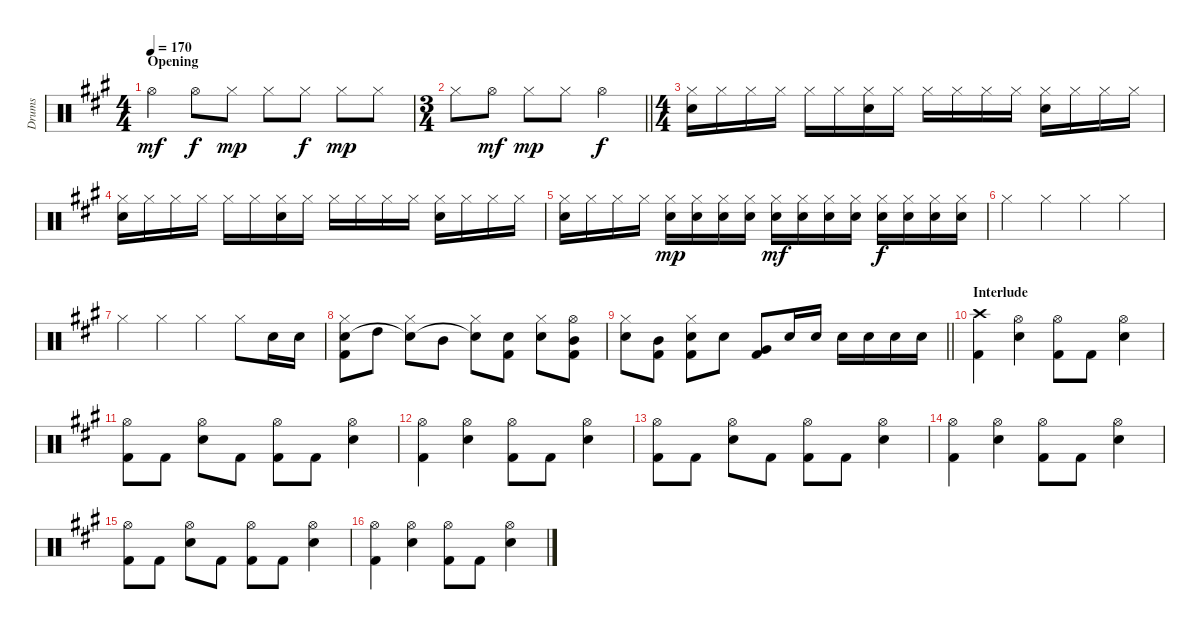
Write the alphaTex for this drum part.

\track ("Drums" "Drums") {instrument percussion}
\staff {score}
\articulation defaults
\ts (4 4)
\section ("" "Opening")
\tempo 170
\clef neutral
\ks f#minor "Hi-Hat (open)".4{dy mf} "Hi-Hat (open)".8{dy f} "Hi-Hat (closed)".8{dy mp} "Hi-Hat (closed)".8 "Hi-Hat (closed)".8{dy f} "Hi-Hat (closed)".8{dy mp} "Hi-Hat (closed)".8
|
\ts (3 4)
\barLineRight lightlight "Hi-Hat (closed)".8 "Hi-Hat (open)".8{dy mf} "Hi-Hat (closed)".8{dy mp} "Hi-Hat (closed)".8 "Hi-Hat (open)".4{dy f}
|
\ts (4 4)
("Hi-Hat (closed)" "Snare (hit) 2").16 "Hi-Hat (closed)".16 "Hi-Hat (closed)".16 "Hi-Hat (closed)".16 "Hi-Hat (closed)".16 "Hi-Hat (closed)".16 ("Hi-Hat (closed)" "Snare (hit) 2").16 "Hi-Hat (closed)".16 "Hi-Hat (closed)".16 "Hi-Hat (closed)".16 "Hi-Hat (closed)".16 "Hi-Hat (closed)".16 ("Hi-Hat (closed)" "Snare (hit) 2").16 "Hi-Hat (closed)".16 "Hi-Hat (closed)".16 "Hi-Hat (closed)".16 |
("Hi-Hat (closed)" "Snare (hit) 2").16 "Hi-Hat (closed)".16 "Hi-Hat (closed)".16 "Hi-Hat (closed)".16 "Hi-Hat (closed)".16 "Hi-Hat (closed)".16 ("Hi-Hat (closed)" "Snare (hit) 2").16 "Hi-Hat (closed)".16 "Hi-Hat (closed)".16 "Hi-Hat (closed)".16 "Hi-Hat (closed)".16 "Hi-Hat (closed)".16 ("Hi-Hat (closed)" "Snare (hit) 2").16 "Hi-Hat (closed)".16 "Hi-Hat (closed)".16 "Hi-Hat (closed)".16 |
("Hi-Hat (closed)" "Snare (hit) 2").16 "Hi-Hat (closed)".16 "Hi-Hat (closed)".16 "Hi-Hat (closed)".16 ("Hi-Hat (closed)" "Snare (hit) 2").16{dy mp} ("Hi-Hat (closed)" "Snare (hit) 2").16 ("Hi-Hat (closed)" "Snare (hit) 2").16 ("Hi-Hat (closed)" "Snare (hit) 2").16 ("Hi-Hat (closed)" "Snare (hit) 2").16{dy mf} ("Hi-Hat (closed)" "Snare (hit) 2").16 ("Hi-Hat (closed)" "Snare (hit) 2").16 ("Hi-Hat (closed)" "Snare (hit) 2").16 ("Hi-Hat (closed)" "Snare (hit) 2").16{dy f} ("Hi-Hat (closed)" "Snare (hit) 2").16 ("Hi-Hat (closed)" "Snare (hit) 2").16 ("Hi-Hat (closed)" "Snare (hit) 2").16 |
"Hi-Hat (closed)".4 "Hi-Hat (closed)".4 "Hi-Hat (closed)".4 "Hi-Hat (closed)".4 |
"Hi-Hat (closed)".4 "Hi-Hat (closed)".4 "Hi-Hat (closed)".4 "Hi-Hat (closed)".8 "Snare (hit) 2".16 "Snare (hit) 2".16 |
("Hi-Hat (closed)" "Snare (hit) 2" "Kick (hit) 2").8 "High Tom (hit)".8 ("Hi-Hat (closed)" "Snare (hit)"{t}).8 "Mid Tom (hit)".8 ("Hi-Hat (closed)" "Snare (hit)"{t}).8 ("Snare (hit) 2" "Kick (hit) 2").8 ("Hi-Hat (closed)" "Snare (hit) 2").8 ("Hi-Hat (open)" "Mid Tom (hit)" "Kick (hit) 2").8 |
\barLineRight lightlight
("Hi-Hat (closed)" "Snare (hit) 2").8 ("Mid Tom (hit)" "Kick (hit) 2").8 ("Hi-Hat (closed)" "Snare (hit) 2" "Kick (hit) 2").8 "Snare (hit) 2".8 ("Very Low Tom (hit)" "Kick (hit) 2").8 "Snare (hit) 2".16 "Snare (hit) 2".16 "Snare (hit) 2".16 "Snare (hit) 2".16 "Snare (hit) 2".16 "Snare (hit) 2".16 |
\section ("" "Interlude")
("Crash high (hit)" "Kick (hit) 2").4 ("Hi-Hat (open)" "Snare (hit) 2").4 ("Hi-Hat (open)" "Kick (hit) 2").8 "Kick (hit) 2".8 ("Hi-Hat (open)" "Snare (hit) 2").4 |
("Hi-Hat (open)" "Kick (hit) 2").8 "Kick (hit) 2".8 ("Hi-Hat (open)" "Snare (hit) 2").8 "Kick (hit) 2".8 ("Hi-Hat (open)" "Kick (hit) 2").8 "Kick (hit) 2".8 ("Hi-Hat (open)" "Snare (hit) 2").4 |
("Hi-Hat (open)" "Kick (hit) 2").4 ("Hi-Hat (open)" "Snare (hit) 2").4 ("Hi-Hat (open)" "Kick (hit) 2").8 "Kick (hit) 2".8 ("Hi-Hat (open)" "Snare (hit) 2").4 |
("Hi-Hat (open)" "Kick (hit) 2").8 "Kick (hit) 2".8 ("Hi-Hat (open)" "Snare (hit) 2").8 "Kick (hit) 2".8 ("Hi-Hat (open)" "Kick (hit) 2").8 "Kick (hit) 2".8 ("Hi-Hat (open)" "Snare (hit) 2").4 |
("Hi-Hat (open)" "Kick (hit) 2").4 ("Hi-Hat (open)" "Snare (hit) 2").4 ("Hi-Hat (open)" "Kick (hit) 2").8 "Kick (hit) 2".8 ("Hi-Hat (open)" "Snare (hit) 2").4 |
("Hi-Hat (open)" "Kick (hit) 2").8 "Kick (hit) 2".8 ("Hi-Hat (open)" "Snare (hit) 2").8 "Kick (hit) 2".8 ("Hi-Hat (open)" "Kick (hit) 2").8 "Kick (hit) 2".8 ("Hi-Hat (open)" "Snare (hit) 2").4 |
("Hi-Hat (open)" "Kick (hit) 2").4 ("Hi-Hat (open)" "Snare (hit) 2").4 ("Hi-Hat (open)" "Kick (hit) 2").8 "Kick (hit) 2".8 ("Hi-Hat (open)" "Snare (hit) 2").4
